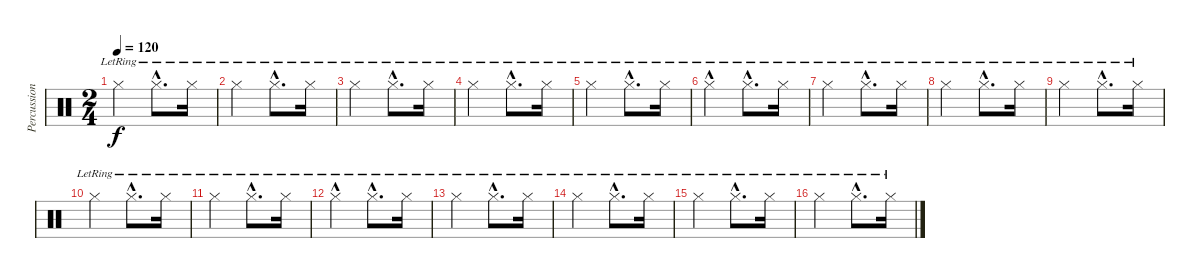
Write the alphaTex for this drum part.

\track ("Percussion" "Percussion") {instrument percussion}
\staff {score}
\articulation defaults
\ts (2 4)
\tempo 120
\clef neutral
\ks c "Hi-Hat (closed)"{lr}.4{dy f} "Hi-Hat (closed)"{hac lr}.8{d} "Hi-Hat (closed)"{lr}.16
|
"Hi-Hat (closed)"{lr}.4 "Hi-Hat (closed)"{hac lr}.8{d} "Hi-Hat (closed)"{lr}.16 |
"Hi-Hat (closed)"{lr}.4 "Hi-Hat (closed)"{hac lr}.8{d} "Hi-Hat (closed)"{lr}.16 |
"Hi-Hat (closed)"{lr}.4 "Hi-Hat (closed)"{hac lr}.8{d} "Hi-Hat (closed)"{lr}.16 |
"Hi-Hat (closed)"{lr}.4 "Hi-Hat (closed)"{hac lr}.8{d} "Hi-Hat (closed)"{lr}.16 |
"Hi-Hat (closed)"{hac lr}.4 "Hi-Hat (closed)"{hac lr}.8{d} "Hi-Hat (closed)"{lr}.16 |
"Hi-Hat (closed)"{lr}.4 "Hi-Hat (closed)"{hac lr}.8{d} "Hi-Hat (closed)"{lr}.16 |
"Hi-Hat (closed)"{lr}.4 "Hi-Hat (closed)"{hac lr}.8{d} "Hi-Hat (closed)"{lr}.16 |
"Hi-Hat (closed)"{lr}.4 "Hi-Hat (closed)"{hac lr}.8{d} "Hi-Hat (closed)"{lr}.16 |
"Hi-Hat (closed)"{lr}.4 "Hi-Hat (closed)"{hac lr}.8{d} "Hi-Hat (closed)"{lr}.16 |
"Hi-Hat (closed)"{lr}.4 "Hi-Hat (closed)"{hac lr}.8{d} "Hi-Hat (closed)"{lr}.16 |
"Hi-Hat (closed)"{hac lr}.4 "Hi-Hat (closed)"{hac lr}.8{d} "Hi-Hat (closed)"{lr}.16 |
"Hi-Hat (closed)"{lr}.4 "Hi-Hat (closed)"{hac lr}.8{d} "Hi-Hat (closed)"{lr}.16 |
"Hi-Hat (closed)"{lr}.4 "Hi-Hat (closed)"{hac lr}.8{d} "Hi-Hat (closed)"{lr}.16 |
"Hi-Hat (closed)"{lr}.4 "Hi-Hat (closed)"{hac lr}.8{d} "Hi-Hat (closed)"{lr}.16 |
"Hi-Hat (closed)"{lr}.4 "Hi-Hat (closed)"{hac lr}.8{d} "Hi-Hat (closed)"{lr}.16
